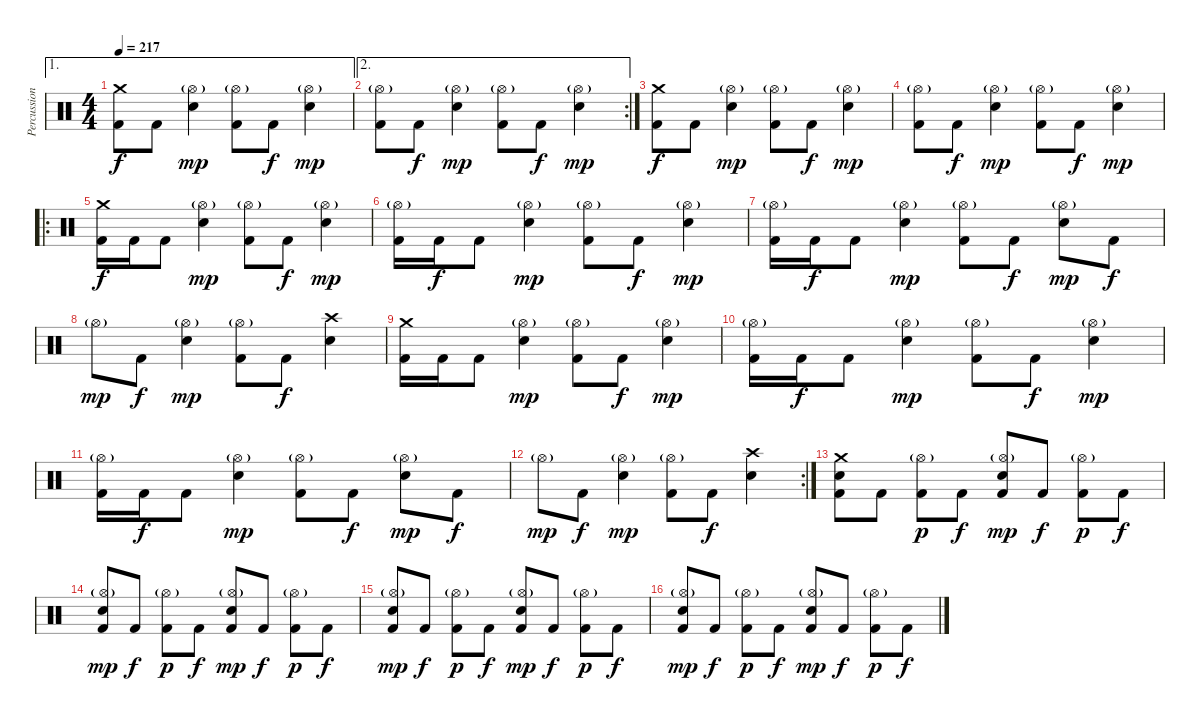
\track ("Percussion" "Percussion") {instrument percussion}
\staff {score}
\articulation defaults
\ae 1
\ts (4 4)
\tempo 217
\clef neutral
\ks c
("Crash medium (hit)" "Kick (hit) 2").8{dy f} "Kick (hit) 2".8 ("Hi-Hat (open)"{g} "Electric Snare (hit)").4{dy mp} ("Hi-Hat (open)"{g} "Kick (hit) 2").8 "Kick (hit) 2".8{dy f} ("Hi-Hat (open)"{g} "Electric Snare (hit)").4{dy mp} |
\ae 2
\rc 2
("Hi-Hat (open)"{g} "Kick (hit) 2").8 "Kick (hit) 2".8{dy f} ("Hi-Hat (open)"{g} "Electric Snare (hit)").4{dy mp} ("Hi-Hat (open)"{g} "Kick (hit) 2").8 "Kick (hit) 2".8{dy f} ("Hi-Hat (open)"{g} "Electric Snare (hit)").4{dy mp} |
("Crash medium (hit)" "Kick (hit) 2").8{dy f} "Kick (hit) 2".8 ("Hi-Hat (open)"{g} "Electric Snare (hit)").4{dy mp} ("Hi-Hat (open)"{g} "Kick (hit) 2").8 "Kick (hit) 2".8{dy f} ("Hi-Hat (open)"{g} "Electric Snare (hit)").4{dy mp} |
("Hi-Hat (open)"{g} "Kick (hit) 2").8 "Kick (hit) 2".8{dy f} ("Hi-Hat (open)"{g} "Electric Snare (hit)").4{dy mp} ("Hi-Hat (open)"{g} "Kick (hit) 2").8 "Kick (hit) 2".8{dy f} ("Hi-Hat (open)"{g} "Electric Snare (hit)").4{dy mp} |
\ro
("Crash medium (hit)" "Kick (hit) 2").16{dy f} "Kick (hit) 2".16 "Kick (hit) 2".8 ("Hi-Hat (open)"{g} "Electric Snare (hit)").4{dy mp} ("Hi-Hat (open)"{g} "Kick (hit) 2").8 "Kick (hit) 2".8{dy f} ("Hi-Hat (open)"{g} "Electric Snare (hit)").4{dy mp} |
("Hi-Hat (open)"{g} "Kick (hit) 2").16 "Kick (hit) 2".16{dy f} "Kick (hit) 2".8 ("Hi-Hat (open)"{g} "Electric Snare (hit)").4{dy mp} ("Hi-Hat (open)"{g} "Kick (hit) 2").8 "Kick (hit) 2".8{dy f} ("Hi-Hat (open)"{g} "Electric Snare (hit)").4{dy mp} |
("Hi-Hat (open)"{g} "Kick (hit) 2").16 "Kick (hit) 2".16{dy f} "Kick (hit) 2".8 ("Hi-Hat (open)"{g} "Electric Snare (hit)").4{dy mp} ("Hi-Hat (open)"{g} "Kick (hit) 2").8 "Kick (hit) 2".8{dy f} ("Hi-Hat (open)"{g} "Electric Snare (hit)").8{dy mp} "Kick (hit) 2".8{dy f} |
"Hi-Hat (open)"{g}.8{dy mp} "Kick (hit) 2".8{dy f} ("Hi-Hat (open)"{g} "Electric Snare (hit)").4{dy mp} ("Hi-Hat (open)"{g} "Kick (hit) 2").8 "Kick (hit) 2".8{dy f} ("Crash high (hit)" "Electric Snare (hit)").4 |
("Crash medium (hit)" "Kick (hit) 2").16 "Kick (hit) 2".16 "Kick (hit) 2".8 ("Hi-Hat (open)"{g} "Electric Snare (hit)").4{dy mp} ("Hi-Hat (open)"{g} "Kick (hit) 2").8 "Kick (hit) 2".8{dy f} ("Hi-Hat (open)"{g} "Electric Snare (hit)").4{dy mp} |
("Hi-Hat (open)"{g} "Kick (hit) 2").16 "Kick (hit) 2".16{dy f} "Kick (hit) 2".8 ("Hi-Hat (open)"{g} "Electric Snare (hit)").4{dy mp} ("Hi-Hat (open)"{g} "Kick (hit) 2").8 "Kick (hit) 2".8{dy f} ("Hi-Hat (open)"{g} "Electric Snare (hit)").4{dy mp} |
("Hi-Hat (open)"{g} "Kick (hit) 2").16 "Kick (hit) 2".16{dy f} "Kick (hit) 2".8 ("Hi-Hat (open)"{g} "Electric Snare (hit)").4{dy mp} ("Hi-Hat (open)"{g} "Kick (hit) 2").8 "Kick (hit) 2".8{dy f} ("Hi-Hat (open)"{g} "Electric Snare (hit)").8{dy mp} "Kick (hit) 2".8{dy f} |
\rc 2 "Hi-Hat (open)"{g}.8{dy mp} "Kick (hit) 2".8{dy f}
("Hi-Hat (open)"{g} "Electric Snare (hit)").4{dy mp} ("Hi-Hat (open)"{g} "Kick (hit) 2").8 "Kick (hit) 2".8{dy f} ("Crash high (hit)" "Electric Snare (hit)").4 |
("Crash medium (hit)" "Electric Snare (hit)" "Kick (hit) 2").8 "Kick (hit) 2".8 ("Hi-Hat (open)"{g} "Kick (hit) 2").8{dy p} "Kick (hit) 2".8{dy f} ("Hi-Hat (open)"{g} "Electric Snare (hit)" "Kick (hit) 2").8{dy mp} "Kick (hit) 2".8{dy f} ("Hi-Hat (open)"{g} "Kick (hit) 2").8{dy p} "Kick (hit) 2".8{dy f} |
("Hi-Hat (open)"{g} "Electric Snare (hit)" "Kick (hit) 2").8{dy mp} "Kick (hit) 2".8{dy f} ("Hi-Hat (open)"{g} "Kick (hit) 2").8{dy p} "Kick (hit) 2".8{dy f} ("Hi-Hat (open)"{g} "Electric Snare (hit)" "Kick (hit) 2").8{dy mp} "Kick (hit) 2".8{dy f} ("Hi-Hat (open)"{g} "Kick (hit) 2").8{dy p} "Kick (hit) 2".8{dy f} |
("Hi-Hat (open)"{g} "Electric Snare (hit)" "Kick (hit) 2").8{dy mp} "Kick (hit) 2".8{dy f} ("Hi-Hat (open)"{g} "Kick (hit) 2").8{dy p} "Kick (hit) 2".8{dy f} ("Hi-Hat (open)"{g} "Electric Snare (hit)" "Kick (hit) 2").8{dy mp} "Kick (hit) 2".8{dy f} ("Hi-Hat (open)"{g} "Kick (hit) 2").8{dy p} "Kick (hit) 2".8{dy f} |
("Hi-Hat (open)"{g} "Electric Snare (hit)" "Kick (hit) 2").8{dy mp} "Kick (hit) 2".8{dy f} ("Hi-Hat (open)"{g} "Kick (hit) 2").8{dy p} "Kick (hit) 2".8{dy f} ("Hi-Hat (open)"{g} "Electric Snare (hit)" "Kick (hit) 2").8{dy mp} "Kick (hit) 2".8{dy f} ("Hi-Hat (open)"{g} "Kick (hit) 2").8{dy p} "Kick (hit) 2".8{dy f}
